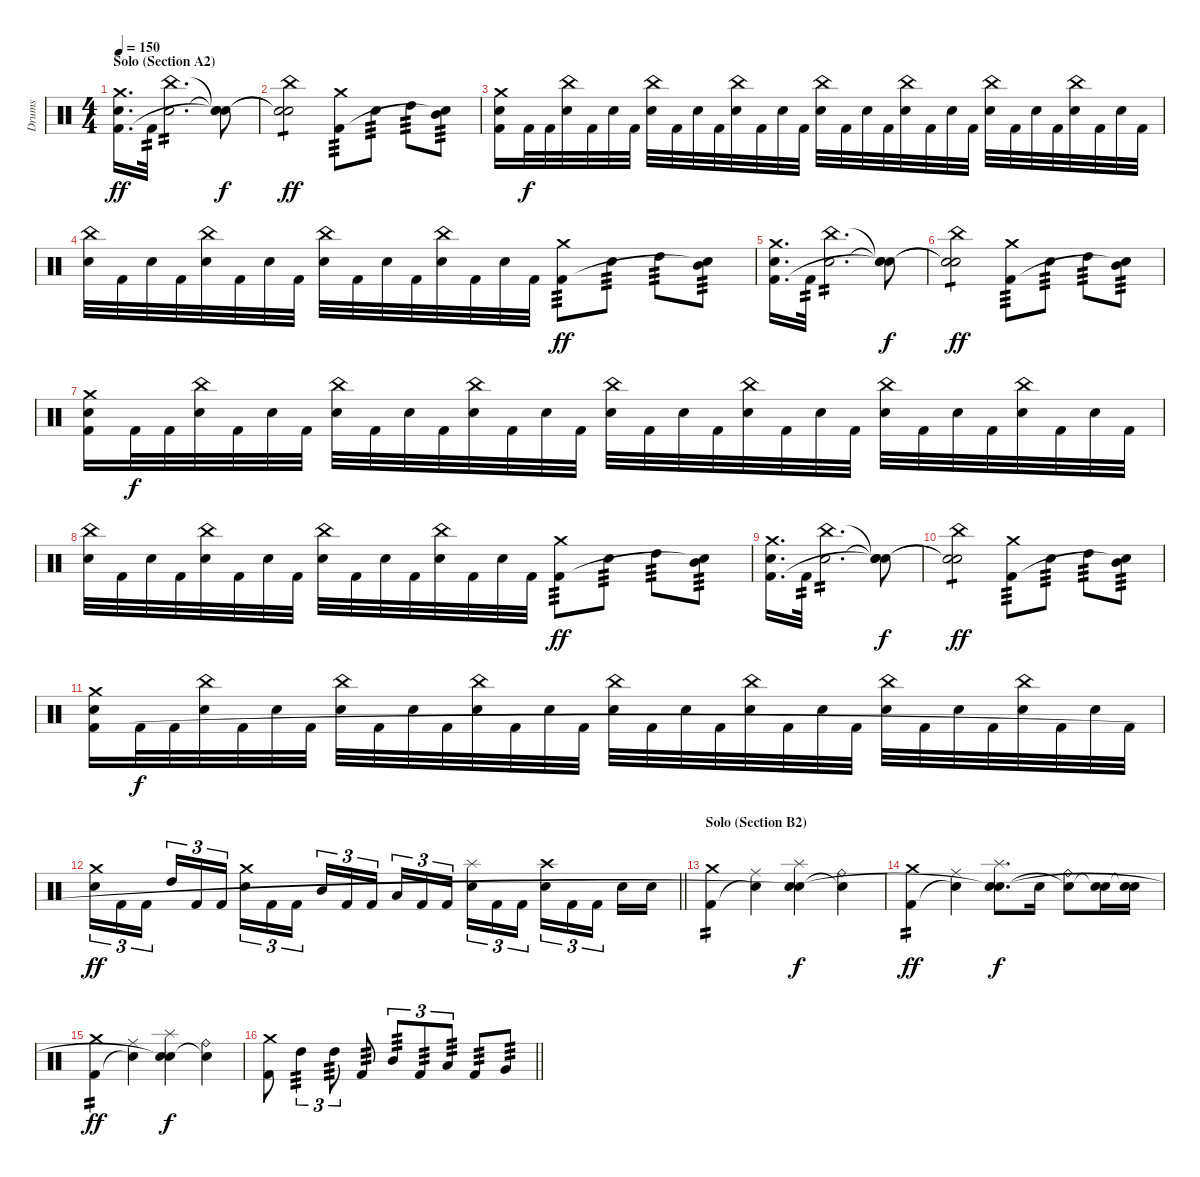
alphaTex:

\track ("Drums" "Drums") {instrument percussion}
\staff {score}
\articulation defaults
\ts (4 4)
\section ("" "Solo (Section A2)")
\tempo 150
\clef neutral
\ks c
("Crash medium (hit)" "Electric Snare (hit)" "Kick (hit) 2").16{d dy ff} "Kick (hit) 2".32{tp 2} ("China (hit)" "Electric Snare (hit)").2{d tp 2} ("Snare (hit)"{t} "Snare (hit)"{t} "Snare (hit)"{t}).8{dy f} |
("China (hit)" "Snare (hit)"{t} "Snare (hit)"{t}).2{tp 1 dy ff} ("Crash medium (hit)" "Kick (hit) 2").8{tp 3} "Electric Snare (hit)".8{tp 3} "High Tom (hit)".8{tp 3} ("Mid Tom (hit)" "Snare (hit)"{t}).8{tp 3} |
("Crash medium (hit)" "Electric Snare (hit)" "Kick (hit) 2").16 "Kick (hit) 2".32{dy f} "Kick (hit) 2".32 ("China (hit)" "Electric Snare (hit)").32 "Kick (hit) 2".32 "Electric Snare (hit)".32 "Kick (hit) 2".32 ("China (hit)" "Electric Snare (hit)").32 "Kick (hit) 2".32 "Electric Snare (hit)".32 "Kick (hit) 2".32 ("China (hit)" "Electric Snare (hit)").32 "Kick (hit) 2".32 "Electric Snare (hit)".32 "Kick (hit) 2".32 ("China (hit)" "Electric Snare (hit)").32 "Kick (hit) 2".32 "Electric Snare (hit)".32 "Kick (hit) 2".32 ("China (hit)" "Electric Snare (hit)").32 "Kick (hit) 2".32 "Electric Snare (hit)".32 "Kick (hit) 2".32 ("China (hit)" "Electric Snare (hit)").32 "Kick (hit) 2".32 "Electric Snare (hit)".32 "Kick (hit) 2".32 ("China (hit)" "Electric Snare (hit)").32 "Kick (hit) 2".32 "Electric Snare (hit)".32 "Kick (hit) 2".32 |
("China (hit)" "Electric Snare (hit)").32 "Kick (hit) 2".32 "Electric Snare (hit)".32 "Kick (hit) 2".32 ("China (hit)" "Electric Snare (hit)").32 "Kick (hit) 2".32 "Electric Snare (hit)".32 "Kick (hit) 2".32 ("China (hit)" "Electric Snare (hit)").32 "Kick (hit) 2".32 "Electric Snare (hit)".32 "Kick (hit) 2".32 ("China (hit)" "Electric Snare (hit)").32 "Kick (hit) 2".32 "Electric Snare (hit)".32 "Kick (hit) 2".32 ("Crash medium (hit)" "Kick (hit) 2").8{tp 3 dy ff} "Electric Snare (hit)".8{tp 3} "High Tom (hit)".8{tp 3} ("Mid Tom (hit)" "Snare (hit)"{t}).8{tp 3} |
("Crash medium (hit)" "Electric Snare (hit)" "Kick (hit) 2").16{d} "Kick (hit) 2".32{tp 2} ("China (hit)" "Electric Snare (hit)").2{d tp 2} ("Snare (hit)"{t} "Snare (hit)"{t} "Snare (hit)"{t}).8{dy f} |
("China (hit)" "Snare (hit)"{t} "Snare (hit)"{t}).2{tp 1 dy ff} ("Crash medium (hit)" "Kick (hit) 2").8{tp 3} "Electric Snare (hit)".8{tp 3} "High Tom (hit)".8{tp 3} ("Mid Tom (hit)" "Snare (hit)"{t}).8{tp 3} |
("Crash medium (hit)" "Electric Snare (hit)" "Kick (hit) 2").16 "Kick (hit) 2".32{dy f} "Kick (hit) 2".32 ("China (hit)" "Electric Snare (hit)").32 "Kick (hit) 2".32 "Electric Snare (hit)".32 "Kick (hit) 2".32 ("China (hit)" "Electric Snare (hit)").32 "Kick (hit) 2".32 "Electric Snare (hit)".32 "Kick (hit) 2".32 ("China (hit)" "Electric Snare (hit)").32 "Kick (hit) 2".32 "Electric Snare (hit)".32 "Kick (hit) 2".32 ("China (hit)" "Electric Snare (hit)").32 "Kick (hit) 2".32 "Electric Snare (hit)".32 "Kick (hit) 2".32 ("China (hit)" "Electric Snare (hit)").32 "Kick (hit) 2".32 "Electric Snare (hit)".32 "Kick (hit) 2".32 ("China (hit)" "Electric Snare (hit)").32 "Kick (hit) 2".32 "Electric Snare (hit)".32 "Kick (hit) 2".32 ("China (hit)" "Electric Snare (hit)").32 "Kick (hit) 2".32 "Electric Snare (hit)".32 "Kick (hit) 2".32 |
("China (hit)" "Electric Snare (hit)").32 "Kick (hit) 2".32 "Electric Snare (hit)".32 "Kick (hit) 2".32 ("China (hit)" "Electric Snare (hit)").32 "Kick (hit) 2".32 "Electric Snare (hit)".32 "Kick (hit) 2".32 ("China (hit)" "Electric Snare (hit)").32 "Kick (hit) 2".32 "Electric Snare (hit)".32 "Kick (hit) 2".32 ("China (hit)" "Electric Snare (hit)").32 "Kick (hit) 2".32 "Electric Snare (hit)".32 "Kick (hit) 2".32 ("Crash medium (hit)" "Kick (hit) 2").8{tp 3 dy ff} "Electric Snare (hit)".8{tp 3} "High Tom (hit)".8{tp 3} ("Mid Tom (hit)" "Snare (hit)"{t}).8{tp 3} |
("Crash medium (hit)" "Electric Snare (hit)" "Kick (hit) 2").16{d} "Kick (hit) 2".32{tp 2} ("China (hit)" "Electric Snare (hit)").2{d tp 2} ("Snare (hit)"{t} "Snare (hit)"{t} "Snare (hit)"{t}).8{dy f} |
("China (hit)" "Snare (hit)"{t} "Snare (hit)"{t}).2{tp 1 dy ff} ("Crash medium (hit)" "Kick (hit) 2").8{tp 3} "Electric Snare (hit)".8{tp 3} "High Tom (hit)".8{tp 3} ("Mid Tom (hit)" "Snare (hit)"{t}).8{tp 3} |
("Crash medium (hit)" "Electric Snare (hit)" "Kick (hit) 2").16 "Kick (hit) 2".32{dy f} "Kick (hit) 2".32 ("China (hit)" "Electric Snare (hit)").32 "Kick (hit) 2".32 "Electric Snare (hit)".32 "Kick (hit) 2".32 ("China (hit)" "Electric Snare (hit)").32 "Kick (hit) 2".32 "Electric Snare (hit)".32 "Kick (hit) 2".32 ("China (hit)" "Electric Snare (hit)").32 "Kick (hit) 2".32 "Electric Snare (hit)".32 "Kick (hit) 2".32 ("China (hit)" "Electric Snare (hit)").32 "Kick (hit) 2".32 "Electric Snare (hit)".32 "Kick (hit) 2".32 ("China (hit)" "Electric Snare (hit)").32 "Kick (hit) 2".32 "Electric Snare (hit)".32 "Kick (hit) 2".32 ("China (hit)" "Electric Snare (hit)").32 "Kick (hit) 2".32 "Electric Snare (hit)".32 "Kick (hit) 2".32 ("China (hit)" "Electric Snare (hit)").32 "Kick (hit) 2".32 "Electric Snare (hit)".32 "Kick (hit) 2".32 |
\barLineRight lightlight
("Crash medium (hit)" "Electric Snare (hit)").16{tu (3 2) dy ff} "Kick (hit) 2".16{tu (3 2)} "Kick (hit) 2".16{tu (3 2) beam splitsecondary} "High Tom (hit)".16{tu (3 2)} "Kick (hit) 2".16{tu (3 2)} "Kick (hit) 2".16{tu (3 2)} ("Crash medium (hit)" "Electric Snare (hit)").16{tu (3 2)} "Kick (hit) 2".16{tu (3 2)} "Kick (hit) 2".16{tu (3 2) beam splitsecondary} "Mid Tom (hit)".16{tu (3 2)} "Kick (hit) 2".16{tu (3 2)} "Kick (hit) 2".16{tu (3 2)} "Low Tom (hit)".16{tu (3 2)} "Kick (hit) 2".16{tu (3 2)} "Kick (hit) 2".16{tu (3 2) beam splitsecondary} ("Splash (hit)" "Electric Snare (hit)").16{tu (3 2)} "Kick (hit) 2".16{tu (3 2)} "Kick (hit) 2".16{tu (3 2)} ("Crash high (hit)" "Electric Snare (hit)").16{tu (3 2)} "Kick (hit) 2".16{tu (3 2)} "Kick (hit) 2".16{tu (3 2) beam splitsecondary} "Electric Snare (hit)".16 "Electric Snare (hit)".16 |
\section ("" "Solo (Section B2)")
("Crash medium (hit)" "Kick (hit) 2").4{tp 2} ("Ride (middle)" "Snare (hit)"{t}).4 ("Splash (hit)" "Electric Snare (hit)" "Snare (hit)"{t}).4{dy f} ("Ride (bell)" "Snare (hit)"{t}).4 |
("Crash medium (hit)" "Kick (hit) 2").4{tp 2 dy ff} ("Ride (middle)" "Snare (hit)"{t}).4 ("Splash (hit)" "Electric Snare (hit)" "Snare (hit)"{t}).8{d dy f} "Electric Snare (hit)".16 ("Ride (bell)" "Snare (hit)"{t}).8 ("Electric Snare (hit)" "Snare (hit)"{t}).16 ("Electric Snare (hit)" "Snare (hit)"{t}).16 |
("Crash medium (hit)" "Kick (hit) 2").4{tp 2 dy ff} ("Ride (middle)" "Snare (hit)"{t}).4 ("Splash (hit)" "Electric Snare (hit)" "Snare (hit)"{t}).4{dy f} ("Ride (bell)" "Snare (hit)"{t}).4 |
\barLineRight lightlight
("Crash medium (hit)" "Kick (hit) 2").8 "High Tom (hit)".4{tu (3 2) tp 3} "High Tom (hit)".8{tu (3 2) tp 3} "Kick (hit) 2".8{tp 3} "Mid Tom (hit)".8{tu (3 2) tp 3} "Kick (hit) 2".8{tu (3 2) tp 3} "Low Tom (hit)".8{tu (3 2) tp 3} "Kick (hit) 2".8{tp 3} "Very Low Tom (hit)".8{tp 3}
